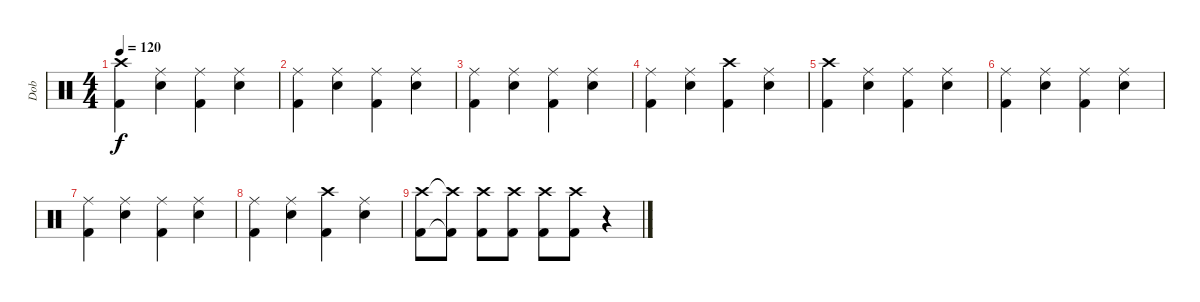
\track ("Dob" "Dob") {instrument percussion}
\staff {score}
\articulation defaults
\ts (4 4)
\tempo 120
\clef neutral
\ks c
("Crash high (hit)" "Kick (hit) 2").4{dy f} ("Ride (middle)" "Electric Snare (hit)").4 ("Ride (middle)" "Kick (hit) 2").4 ("Ride (middle)" "Electric Snare (hit)").4 |
("Ride (middle)" "Kick (hit) 2").4 ("Ride (middle)" "Electric Snare (hit)").4 ("Ride (middle)" "Kick (hit) 2").4 ("Ride (middle)" "Electric Snare (hit)").4 |
("Ride (middle)" "Kick (hit) 2").4 ("Ride (middle)" "Electric Snare (hit)").4 ("Ride (middle)" "Kick (hit) 2").4 ("Ride (middle)" "Electric Snare (hit)").4 |
("Ride (middle)" "Kick (hit) 2").4 ("Ride (middle)" "Electric Snare (hit)").4 ("Crash high (hit)" "Kick (hit) 2").4 ("Ride (middle)" "Electric Snare (hit)").4 |
("Crash high (hit)" "Kick (hit) 2").4 ("Ride (middle)" "Electric Snare (hit)").4 ("Ride (middle)" "Kick (hit) 2").4 ("Ride (middle)" "Electric Snare (hit)").4 |
("Ride (middle)" "Kick (hit) 2").4 ("Ride (middle)" "Electric Snare (hit)").4 ("Ride (middle)" "Kick (hit) 2").4 ("Ride (middle)" "Electric Snare (hit)").4 |
("Ride (middle)" "Kick (hit) 2").4 ("Ride (middle)" "Electric Snare (hit)").4 ("Ride (middle)" "Kick (hit) 2").4 ("Ride (middle)" "Electric Snare (hit)").4 |
("Ride (middle)" "Kick (hit) 2").4 ("Ride (middle)" "Electric Snare (hit)").4 ("Crash high (hit)" "Kick (hit) 2").4 ("Ride (middle)" "Electric Snare (hit)").4 |
("Crash high (hit)" "Kick (hit) 2").8 ("Crash high (hit)"{t} "Kick (hit) 2"{t}).8 ("Crash high (hit)" "Kick (hit) 2").8 ("Crash high (hit)" "Kick (hit) 2").8 ("Crash high (hit)" "Kick (hit) 2").8 ("Crash high (hit)" "Kick (hit) 2").8 r.4
